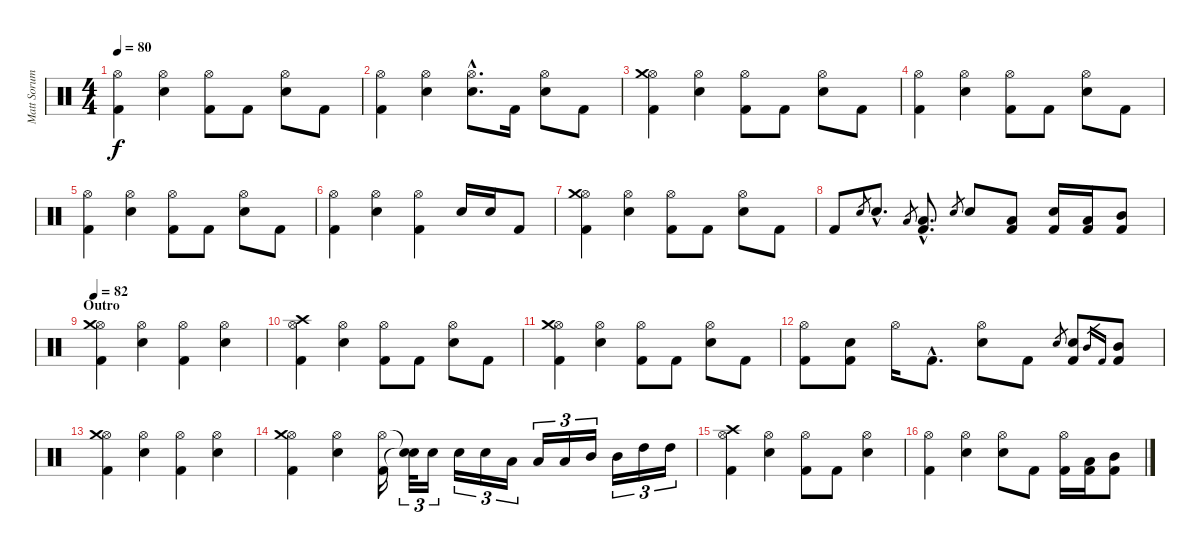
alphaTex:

\track ("Matt Sorum" "Matt Sorum") {instrument percussion}
\staff {score}
\articulation defaults
\ts (4 4)
\tempo 80
\clef neutral
\ks c
("Hi-Hat (open)" "Kick (hit) 2").4{dy f} ("Electric Snare (hit)" "Hi-Hat (open)").4 ("Hi-Hat (open)" "Kick (hit) 2").8 "Kick (hit) 2".8 ("Electric Snare (hit)" "Hi-Hat (open)").8 "Kick (hit) 2".8 |
("Hi-Hat (open)" "Kick (hit) 2").4 ("Electric Snare (hit)" "Hi-Hat (open)").4 ("Electric Snare (hit)"{hac} "Hi-Hat (open)"{hac}).8{d} "Kick (hit) 2".16 ("Electric Snare (hit)" "Hi-Hat (open)").8 "Kick (hit) 2".8 |
("Hi-Hat (open)" "Kick (hit) 2" "Crash medium (hit)").4 ("Electric Snare (hit)" "Hi-Hat (open)").4 ("Hi-Hat (open)" "Kick (hit) 2").8 "Kick (hit) 2".8 ("Electric Snare (hit)" "Hi-Hat (open)").8 "Kick (hit) 2".8 |
("Hi-Hat (open)" "Kick (hit) 2").4 ("Electric Snare (hit)" "Hi-Hat (open)").4 ("Hi-Hat (open)" "Kick (hit) 2").8 "Kick (hit) 2".8 ("Electric Snare (hit)" "Hi-Hat (open)").8 "Kick (hit) 2".8 |
("Hi-Hat (open)" "Kick (hit) 2").4 ("Electric Snare (hit)" "Hi-Hat (open)").4 ("Hi-Hat (open)" "Kick (hit) 2").8 "Kick (hit) 2".8 ("Electric Snare (hit)" "Hi-Hat (open)").8 "Kick (hit) 2".8 |
("Hi-Hat (open)" "Kick (hit) 2").4 ("Electric Snare (hit)" "Hi-Hat (open)").4 ("Hi-Hat (open)" "Kick (hit) 2").4 "Electric Snare (hit)".16 "Electric Snare (hit)".16 "Kick (hit) 2".8 |
("Hi-Hat (open)" "Kick (hit) 2" "Crash medium (hit)").4 ("Electric Snare (hit)" "Hi-Hat (open)").4 ("Hi-Hat (open)" "Kick (hit) 2").8 "Kick (hit) 2".8 ("Electric Snare (hit)" "Hi-Hat (open)").8 "Kick (hit) 2".8 |
"Kick (hit) 2".8 "Electric Snare (hit)".8{gr} "Electric Snare (hit)"{hac}.8{d} "Low Tom (hit)".8{gr} ("Low Tom (hit)"{hac} "Kick (hit) 2"{hac}).8{d} "Electric Snare (hit)".8{gr} "Electric Snare (hit)".8 ("Low Tom (hit)" "Kick (hit) 2").8 ("Electric Snare (hit)" "Kick (hit) 2").16 ("Low Tom (hit)" "Kick (hit) 2").16 ("Mid Tom (hit)" "Kick (hit) 2").8 |
\section ("" "Outro")
\tempo 82
("Hi-Hat (open)" "Kick (hit) 2" "Crash medium (hit)").4 ("Electric Snare (hit)" "Hi-Hat (open)").4 ("Hi-Hat (open)" "Kick (hit) 2").4 ("Electric Snare (hit)" "Hi-Hat (open)").4 |
("Hi-Hat (open)" "Kick (hit) 2" "Crash high (hit)").4 ("Electric Snare (hit)" "Hi-Hat (open)").4 ("Hi-Hat (open)" "Kick (hit) 2").8 "Kick (hit) 2".8 ("Electric Snare (hit)" "Hi-Hat (open)").8 "Kick (hit) 2".8 |
("Hi-Hat (open)" "Kick (hit) 2" "Crash medium (hit)").4 ("Electric Snare (hit)" "Hi-Hat (open)").4 ("Hi-Hat (open)" "Kick (hit) 2").8 "Kick (hit) 2".8 ("Electric Snare (hit)" "Hi-Hat (open)").8 "Kick (hit) 2".8 |
("Hi-Hat (open)" "Kick (hit) 2").8 ("Electric Snare (hit)" "Kick (hit) 2").8 "Hi-Hat (open)".16 "Kick (hit) 2"{hac}.8{d} ("Electric Snare (hit)" "Hi-Hat (open)").8 "Kick (hit) 2".8 "Electric Snare (hit)".8{gr} ("Electric Snare (hit)" "Kick (hit) 2").8 "Mid Tom (hit)".16{gr} "Kick (hit) 2".16{gr} ("Mid Tom (hit)" "Kick (hit) 2").8 |
("Hi-Hat (open)" "Kick (hit) 2" "Crash medium (hit)").4 ("Electric Snare (hit)" "Hi-Hat (open)").4 ("Hi-Hat (open)" "Kick (hit) 2").4 ("Electric Snare (hit)" "Hi-Hat (open)").4 |
("Hi-Hat (open)" "Kick (hit) 2" "Crash medium (hit)").4 ("Electric Snare (hit)" "Hi-Hat (open)").4 ("Hi-Hat (open)" "Kick (hit) 2").16 ("Snare (hit)"{t} "Snare (hit)"{t}).32{tu (3 2)} "Electric Snare (hit)".16{tu (3 2)} "Electric Snare (hit)".16{tu (3 2)} "Electric Snare (hit)".16{tu (3 2)} "Low Tom (hit)".16{tu (3 2)} "Low Tom (hit)".16{tu (3 2)} "Low Tom (hit)".16{tu (3 2)} "Mid Tom (hit)".16{tu (3 2)} "Mid Tom (hit)".16{tu (3 2)} "High Tom (hit)".16{tu (3 2)} "High Tom (hit)".16{tu (3 2)} |
("Hi-Hat (open)" "Kick (hit) 2" "Crash high (hit)").4 ("Electric Snare (hit)" "Hi-Hat (open)").4 ("Hi-Hat (open)" "Kick (hit) 2").8 "Kick (hit) 2".8 ("Electric Snare (hit)" "Hi-Hat (open)").4 |
("Hi-Hat (open)" "Kick (hit) 2").4 ("Electric Snare (hit)" "Hi-Hat (open)").4 ("Electric Snare (hit)" "Hi-Hat (open)").8 "Kick (hit) 2".8 ("Hi-Hat (open)" "Kick (hit) 2").16 ("Low Tom (hit)" "Kick (hit) 2").16 ("Mid Tom (hit)" "Kick (hit) 2").8
